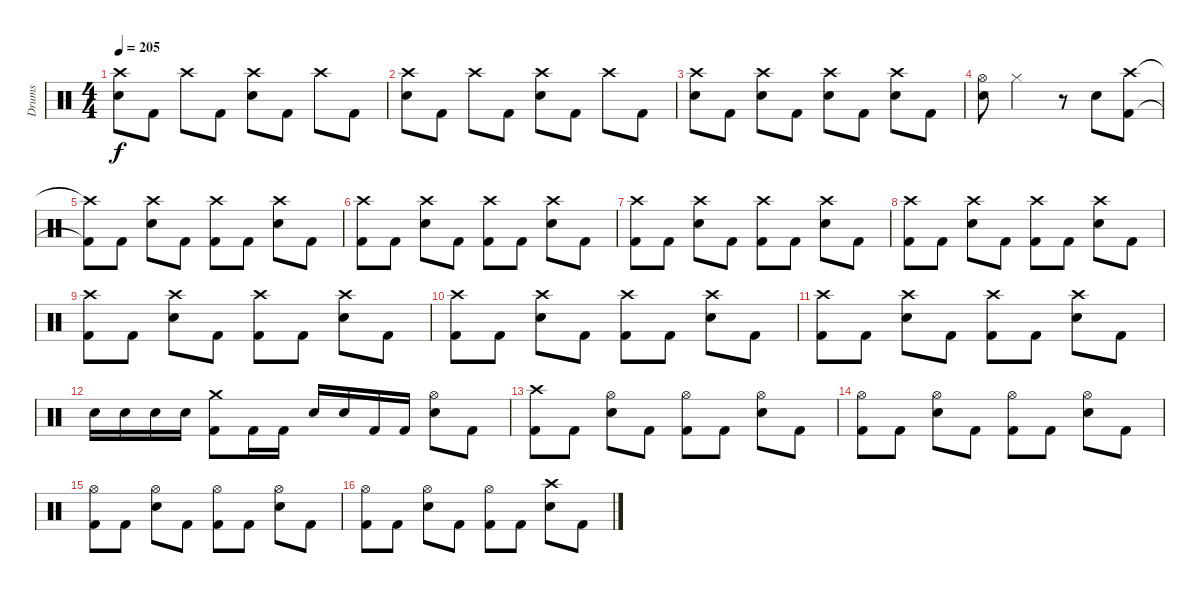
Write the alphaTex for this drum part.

\track ("Drums" "Drums") {instrument percussion}
\staff {score}
\articulation defaults
\ts (4 4)
\tempo 205
\clef neutral
\ks c
("Crash high (hit)" "Electric Snare (hit)").8{dy f} "Kick (hit) 2".8 "Crash high (hit)".8 "Kick (hit) 2".8 ("Crash high (hit)" "Electric Snare (hit)").8 "Kick (hit) 2".8 "Crash high (hit)".8 "Kick (hit) 2".8 |
("Crash high (hit)" "Electric Snare (hit)").8 "Kick (hit) 2".8 "Crash high (hit)".8 "Kick (hit) 2".8 ("Crash high (hit)" "Electric Snare (hit)").8 "Kick (hit) 2".8 "Crash high (hit)".8 "Kick (hit) 2".8 |
("Crash high (hit)" "Electric Snare (hit)").8 "Kick (hit) 2".8 ("Crash high (hit)" "Electric Snare (hit)").8 "Kick (hit) 2".8 ("Crash high (hit)" "Electric Snare (hit)").8 "Kick (hit) 2".8 ("Crash high (hit)" "Electric Snare (hit)").8 "Kick (hit) 2".8 |
("Hi-Hat (open)" "Electric Snare (hit)").8 "Hi-Hat (closed)".2 r.8 "Electric Snare (hit)".8 ("Crash high (hit)" "Kick (hit) 2").8 |
("Crash high (hit)"{t} "Kick (hit) 2"{t}).8 "Kick (hit) 2".8 ("Crash high (hit)" "Electric Snare (hit)").8 "Kick (hit) 2".8 ("Crash high (hit)" "Kick (hit) 2").8 "Kick (hit) 2".8 ("Crash high (hit)" "Electric Snare (hit)").8 "Kick (hit) 2".8 |
("Crash high (hit)" "Kick (hit) 2").8 "Kick (hit) 2".8 ("Crash high (hit)" "Electric Snare (hit)").8 "Kick (hit) 2".8 ("Crash high (hit)" "Kick (hit) 2").8 "Kick (hit) 2".8 ("Crash high (hit)" "Electric Snare (hit)").8 "Kick (hit) 2".8 |
("Crash high (hit)" "Kick (hit) 2").8 "Kick (hit) 2".8 ("Crash high (hit)" "Electric Snare (hit)").8 "Kick (hit) 2".8 ("Crash high (hit)" "Kick (hit) 2").8 "Kick (hit) 2".8 ("Crash high (hit)" "Electric Snare (hit)").8 "Kick (hit) 2".8 |
("Crash high (hit)" "Kick (hit) 2").8 "Kick (hit) 2".8 ("Crash high (hit)" "Electric Snare (hit)").8 "Kick (hit) 2".8 ("Crash high (hit)" "Kick (hit) 2").8 "Kick (hit) 2".8 ("Crash high (hit)" "Electric Snare (hit)").8 "Kick (hit) 2".8 |
("Crash high (hit)" "Kick (hit) 2").8 "Kick (hit) 2".8 ("Crash high (hit)" "Electric Snare (hit)").8 "Kick (hit) 2".8 ("Crash high (hit)" "Kick (hit) 2").8 "Kick (hit) 2".8 ("Crash high (hit)" "Electric Snare (hit)").8 "Kick (hit) 2".8 |
("Crash high (hit)" "Kick (hit) 2").8 "Kick (hit) 2".8 ("Crash high (hit)" "Electric Snare (hit)").8 "Kick (hit) 2".8 ("Crash high (hit)" "Kick (hit) 2").8 "Kick (hit) 2".8 ("Crash high (hit)" "Electric Snare (hit)").8 "Kick (hit) 2".8 |
("Crash high (hit)" "Kick (hit) 2").8 "Kick (hit) 2".8 ("Crash high (hit)" "Electric Snare (hit)").8 "Kick (hit) 2".8 ("Crash high (hit)" "Kick (hit) 2").8 "Kick (hit) 2".8 ("Crash high (hit)" "Electric Snare (hit)").8 "Kick (hit) 2".8 |
"Electric Snare (hit)".16 "Electric Snare (hit)".16 "Electric Snare (hit)".16 "Electric Snare (hit)".16 ("Crash medium (hit)" "Kick (hit) 2").8 "Kick (hit) 2".16 "Kick (hit) 2".16 "Electric Snare (hit)".16 "Electric Snare (hit)".16 "Kick (hit) 2".16 "Kick (hit) 2".16 ("Hi-Hat (open)" "Electric Snare (hit)").8 "Kick (hit) 2".8 |
("Crash high (hit)" "Kick (hit) 2").8 "Kick (hit) 2".8 ("Hi-Hat (open)" "Electric Snare (hit)").8 "Kick (hit) 2".8 ("Hi-Hat (open)" "Kick (hit) 2").8 "Kick (hit) 2".8 ("Hi-Hat (open)" "Electric Snare (hit)").8 "Kick (hit) 2".8 |
("Hi-Hat (open)" "Kick (hit) 2").8 "Kick (hit) 2".8 ("Hi-Hat (open)" "Electric Snare (hit)").8 "Kick (hit) 2".8 ("Hi-Hat (open)" "Kick (hit) 2").8 "Kick (hit) 2".8 ("Hi-Hat (open)" "Electric Snare (hit)").8 "Kick (hit) 2".8 |
("Hi-Hat (open)" "Kick (hit) 2").8 "Kick (hit) 2".8 ("Hi-Hat (open)" "Electric Snare (hit)").8 "Kick (hit) 2".8 ("Hi-Hat (open)" "Kick (hit) 2").8 "Kick (hit) 2".8 ("Hi-Hat (open)" "Electric Snare (hit)").8 "Kick (hit) 2".8 |
("Hi-Hat (open)" "Kick (hit) 2").8 "Kick (hit) 2".8 ("Hi-Hat (open)" "Electric Snare (hit)").8 "Kick (hit) 2".8 ("Hi-Hat (open)" "Kick (hit) 2").8 "Kick (hit) 2".8 ("Crash high (hit)" "Electric Snare (hit)").8 "Kick (hit) 2".8
